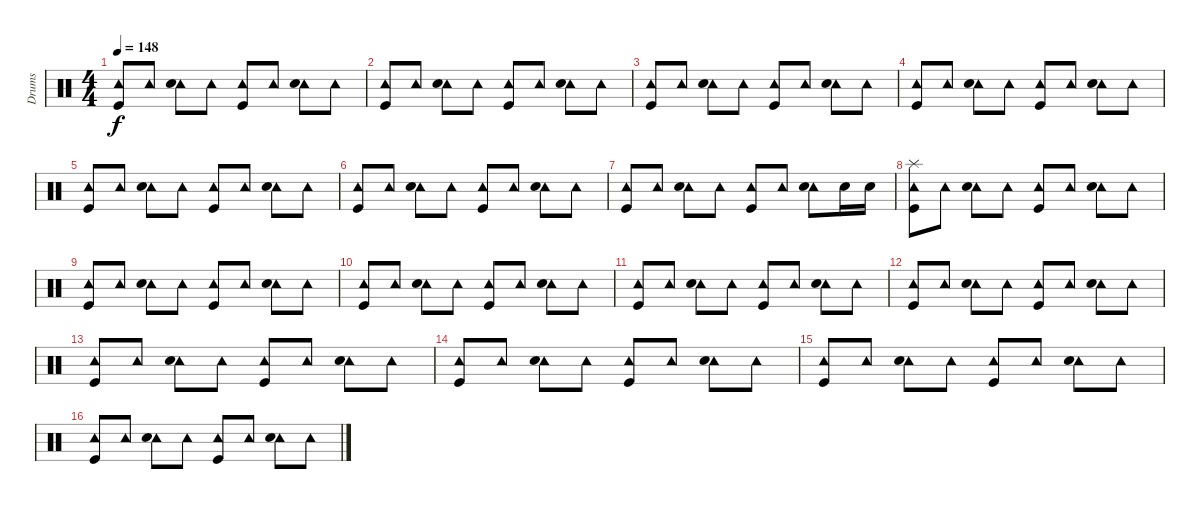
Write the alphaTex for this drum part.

\track ("Drums" "Drums") {instrument percussion}
\staff {score}
\articulation defaults
\ts (4 4)
\tempo 148
\clef neutral
\ks c
("Tambourine (hit)" "Kick (hit)").8{dy f} "Tambourine (hit)".8 ("Tambourine (hit)" "Snare (hit) 2").8 "Tambourine (hit)".8 ("Tambourine (hit)" "Kick (hit)").8 "Tambourine (hit)".8 ("Tambourine (hit)" "Snare (hit) 2").8 "Tambourine (hit)".8 |
("Tambourine (hit)" "Kick (hit)").8 "Tambourine (hit)".8 ("Tambourine (hit)" "Snare (hit) 2").8 "Tambourine (hit)".8 ("Tambourine (hit)" "Kick (hit)").8 "Tambourine (hit)".8 ("Tambourine (hit)" "Snare (hit) 2").8 "Tambourine (hit)".8 |
("Tambourine (hit)" "Kick (hit)").8 "Tambourine (hit)".8 ("Tambourine (hit)" "Snare (hit) 2").8 "Tambourine (hit)".8 ("Tambourine (hit)" "Kick (hit)").8 "Tambourine (hit)".8 ("Tambourine (hit)" "Snare (hit) 2").8 "Tambourine (hit)".8 |
("Tambourine (hit)" "Kick (hit)").8 "Tambourine (hit)".8 ("Tambourine (hit)" "Snare (hit) 2").8 "Tambourine (hit)".8 ("Tambourine (hit)" "Kick (hit)").8 "Tambourine (hit)".8 ("Tambourine (hit)" "Snare (hit) 2").8 "Tambourine (hit)".8 |
("Tambourine (hit)" "Kick (hit)").8 "Tambourine (hit)".8 ("Tambourine (hit)" "Snare (hit) 2").8 "Tambourine (hit)".8 ("Tambourine (hit)" "Kick (hit)").8 "Tambourine (hit)".8 ("Tambourine (hit)" "Snare (hit) 2").8 "Tambourine (hit)".8 |
("Tambourine (hit)" "Kick (hit)").8 "Tambourine (hit)".8 ("Tambourine (hit)" "Snare (hit) 2").8 "Tambourine (hit)".8 ("Tambourine (hit)" "Kick (hit)").8 "Tambourine (hit)".8 ("Tambourine (hit)" "Snare (hit) 2").8 "Tambourine (hit)".8 |
("Tambourine (hit)" "Kick (hit)").8 "Tambourine (hit)".8 ("Tambourine (hit)" "Snare (hit) 2").8 "Tambourine (hit)".8 ("Tambourine (hit)" "Kick (hit)").8 "Tambourine (hit)".8 ("Tambourine (hit)" "Snare (hit) 2").8 "Snare (hit) 2".16 "Snare (hit) 2".16 |
("Tambourine (hit)" "Kick (hit)" "Splash (hit)").8 "Tambourine (hit)".8 ("Tambourine (hit)" "Snare (hit) 2").8 "Tambourine (hit)".8 ("Tambourine (hit)" "Kick (hit)").8 "Tambourine (hit)".8 ("Tambourine (hit)" "Snare (hit) 2").8 "Tambourine (hit)".8 |
("Tambourine (hit)" "Kick (hit)").8 "Tambourine (hit)".8 ("Tambourine (hit)" "Snare (hit) 2").8 "Tambourine (hit)".8 ("Tambourine (hit)" "Kick (hit)").8 "Tambourine (hit)".8 ("Tambourine (hit)" "Snare (hit) 2").8 "Tambourine (hit)".8 |
("Tambourine (hit)" "Kick (hit)").8 "Tambourine (hit)".8 ("Tambourine (hit)" "Snare (hit) 2").8 "Tambourine (hit)".8 ("Tambourine (hit)" "Kick (hit)").8 "Tambourine (hit)".8 ("Tambourine (hit)" "Snare (hit) 2").8 "Tambourine (hit)".8 |
("Tambourine (hit)" "Kick (hit)").8 "Tambourine (hit)".8 ("Tambourine (hit)" "Snare (hit) 2").8 "Tambourine (hit)".8 ("Tambourine (hit)" "Kick (hit)").8 "Tambourine (hit)".8 ("Tambourine (hit)" "Snare (hit) 2").8 "Tambourine (hit)".8 |
("Tambourine (hit)" "Kick (hit)").8 "Tambourine (hit)".8 ("Tambourine (hit)" "Snare (hit) 2").8 "Tambourine (hit)".8 ("Tambourine (hit)" "Kick (hit)").8 "Tambourine (hit)".8 ("Tambourine (hit)" "Snare (hit) 2").8 "Tambourine (hit)".8 |
("Tambourine (hit)" "Kick (hit)").8 "Tambourine (hit)".8 ("Tambourine (hit)" "Snare (hit) 2").8 "Tambourine (hit)".8 ("Tambourine (hit)" "Kick (hit)").8 "Tambourine (hit)".8 ("Tambourine (hit)" "Snare (hit) 2").8 "Tambourine (hit)".8 |
("Tambourine (hit)" "Kick (hit)").8 "Tambourine (hit)".8 ("Tambourine (hit)" "Snare (hit) 2").8 "Tambourine (hit)".8 ("Tambourine (hit)" "Kick (hit)").8 "Tambourine (hit)".8 ("Tambourine (hit)" "Snare (hit) 2").8 "Tambourine (hit)".8 |
("Tambourine (hit)" "Kick (hit)").8 "Tambourine (hit)".8 ("Tambourine (hit)" "Snare (hit) 2").8 "Tambourine (hit)".8 ("Tambourine (hit)" "Kick (hit)").8 "Tambourine (hit)".8 ("Tambourine (hit)" "Snare (hit) 2").8 "Tambourine (hit)".8 |
("Tambourine (hit)" "Kick (hit)").8 "Tambourine (hit)".8 ("Tambourine (hit)" "Snare (hit) 2").8 "Tambourine (hit)".8 ("Tambourine (hit)" "Kick (hit)").8 "Tambourine (hit)".8 ("Tambourine (hit)" "Snare (hit) 2").8 "Tambourine (hit)".8
